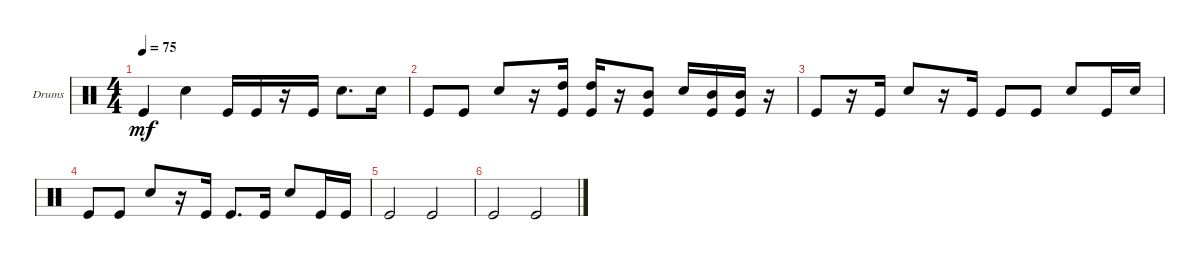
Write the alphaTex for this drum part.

\defaultSystemsLayout 4
\bracketExtendMode groupsimilarinstruments
\firstSystemTrackNameOrientation horizontal
\otherSystemsTrackNameOrientation horizontal
\track ("Drumkit" "Drums") {instrument percussion}
\staff {score}
\articulation defaults
\ts (4 4)
\tempo 75
\clef neutral
\ks c "Kick (hit)".4{dy mf} "Snare (hit) 2".4 "Kick (hit)".16 "Kick (hit)".16
r.16 "Kick (hit)".16 "Snare (hit) 2".8{d} "Snare (hit) 2".16 |
"Kick (hit)".8 "Kick (hit)".8 "Snare (hit) 2".8 r.16 ("High Tom (hit)" "Kick (hit)").16 ("High Tom (hit)" "Kick (hit)").16 r.16 ("Mid Tom (hit)" "Kick (hit)").8 "Snare (hit) 2".16 ("Mid Tom (hit)" "Kick (hit)").16 ("Kick (hit)" "Mid Tom (hit)").16 r.16 |
"Kick (hit)".8 r.16 "Kick (hit)".16 "Snare (hit) 2".8 r.16 "Kick (hit)".16 "Kick (hit)".8 "Kick (hit)".8 "Snare (hit) 2".8 "Kick (hit)".16 "Snare (hit) 2".16 |
"Kick (hit)".8 "Kick (hit)".8 "Snare (hit) 2".8 r.16 "Kick (hit)".16 "Kick (hit)".8{d} "Kick (hit)".16 "Snare (hit) 2".8 "Kick (hit)".16 "Kick (hit)".16 |
"Kick (hit)".2 "Kick (hit)".2 |
"Kick (hit)".2 "Kick (hit)".2
